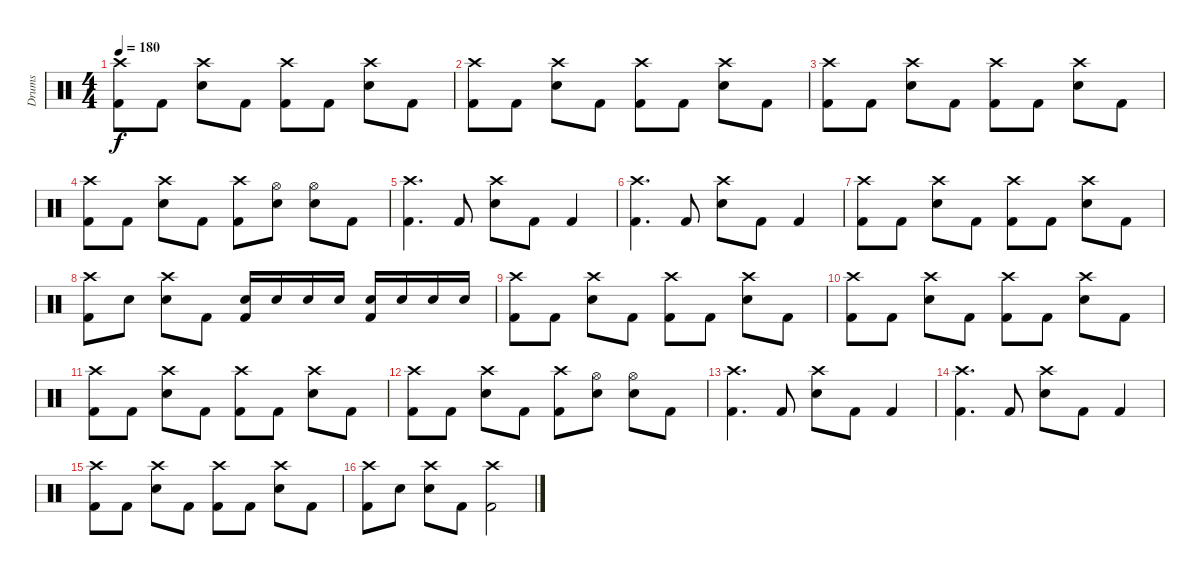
\track ("Drums" "Drums") {instrument percussion}
\staff {score}
\articulation defaults
\ts (4 4)
\tempo 180
\clef neutral
\ks c
("Crash high (hit)" "Kick (hit) 2").8{dy f} "Kick (hit) 2".8 ("Crash high (hit)" "Electric Snare (hit)").8 "Kick (hit) 2".8 ("Crash high (hit)" "Kick (hit) 2").8 "Kick (hit) 2".8 ("Crash high (hit)" "Electric Snare (hit)").8 "Kick (hit) 2".8 |
("Crash high (hit)" "Kick (hit) 2").8 "Kick (hit) 2".8 ("Crash high (hit)" "Electric Snare (hit)").8 "Kick (hit) 2".8 ("Crash high (hit)" "Kick (hit) 2").8 "Kick (hit) 2".8 ("Crash high (hit)" "Electric Snare (hit)").8 "Kick (hit) 2".8 |
("Crash high (hit)" "Kick (hit) 2").8 "Kick (hit) 2".8 ("Crash high (hit)" "Electric Snare (hit)").8 "Kick (hit) 2".8 ("Crash high (hit)" "Kick (hit) 2").8 "Kick (hit) 2".8 ("Crash high (hit)" "Electric Snare (hit)").8 "Kick (hit) 2".8 |
("Crash high (hit)" "Kick (hit) 2").8 "Kick (hit) 2".8 ("Crash high (hit)" "Electric Snare (hit)").8 "Kick (hit) 2".8 ("Crash high (hit)" "Kick (hit) 2").8 ("Hi-Hat (open)" "Electric Snare (hit)").8 ("Hi-Hat (open)" "Electric Snare (hit)").8 "Kick (hit) 2".8 |
("Crash high (hit)" "Kick (hit) 2").4{d} "Kick (hit) 2".8 ("Crash high (hit)" "Electric Snare (hit)").8 "Kick (hit) 2".8 "Kick (hit) 2".4 |
("Crash high (hit)" "Kick (hit) 2").4{d} "Kick (hit) 2".8 ("Crash high (hit)" "Electric Snare (hit)").8 "Kick (hit) 2".8 "Kick (hit) 2".4 |
("Crash high (hit)" "Kick (hit) 2").8 "Kick (hit) 2".8 ("Crash high (hit)" "Electric Snare (hit)").8 "Kick (hit) 2".8 ("Crash high (hit)" "Kick (hit) 2").8 "Kick (hit) 2".8 ("Crash high (hit)" "Electric Snare (hit)").8 "Kick (hit) 2".8 |
("Crash high (hit)" "Kick (hit) 2").8 "Electric Snare (hit)".8 ("Crash high (hit)" "Electric Snare (hit)").8 "Kick (hit) 2".8 ("Electric Snare (hit)" "Kick (hit) 2").16 "Electric Snare (hit)".16 "Electric Snare (hit)".16 "Electric Snare (hit)".16 ("Electric Snare (hit)" "Kick (hit) 2").16 "Electric Snare (hit)".16 "Electric Snare (hit)".16 "Electric Snare (hit)".16 |
("Crash high (hit)" "Kick (hit) 2").8 "Kick (hit) 2".8 ("Crash high (hit)" "Electric Snare (hit)").8 "Kick (hit) 2".8 ("Crash high (hit)" "Kick (hit) 2").8 "Kick (hit) 2".8 ("Crash high (hit)" "Electric Snare (hit)").8 "Kick (hit) 2".8 |
("Crash high (hit)" "Kick (hit) 2").8 "Kick (hit) 2".8 ("Crash high (hit)" "Electric Snare (hit)").8 "Kick (hit) 2".8 ("Crash high (hit)" "Kick (hit) 2").8 "Kick (hit) 2".8 ("Crash high (hit)" "Electric Snare (hit)").8 "Kick (hit) 2".8 |
("Crash high (hit)" "Kick (hit) 2").8 "Kick (hit) 2".8 ("Crash high (hit)" "Electric Snare (hit)").8 "Kick (hit) 2".8 ("Crash high (hit)" "Kick (hit) 2").8 "Kick (hit) 2".8 ("Crash high (hit)" "Electric Snare (hit)").8 "Kick (hit) 2".8 |
("Crash high (hit)" "Kick (hit) 2").8 "Kick (hit) 2".8 ("Crash high (hit)" "Electric Snare (hit)").8 "Kick (hit) 2".8 ("Crash high (hit)" "Kick (hit) 2").8 ("Hi-Hat (open)" "Electric Snare (hit)").8 ("Hi-Hat (open)" "Electric Snare (hit)").8 "Kick (hit) 2".8 |
("Crash high (hit)" "Kick (hit) 2").4{d} "Kick (hit) 2".8 ("Crash high (hit)" "Electric Snare (hit)").8 "Kick (hit) 2".8 "Kick (hit) 2".4 |
("Crash high (hit)" "Kick (hit) 2").4{d} "Kick (hit) 2".8 ("Crash high (hit)" "Electric Snare (hit)").8 "Kick (hit) 2".8 "Kick (hit) 2".4 |
("Crash high (hit)" "Kick (hit) 2").8 "Kick (hit) 2".8 ("Crash high (hit)" "Electric Snare (hit)").8 "Kick (hit) 2".8 ("Crash high (hit)" "Kick (hit) 2").8 "Kick (hit) 2".8 ("Crash high (hit)" "Electric Snare (hit)").8 "Kick (hit) 2".8 |
("Crash high (hit)" "Kick (hit) 2").8 "Electric Snare (hit)".8 ("Crash high (hit)" "Electric Snare (hit)").8 "Kick (hit) 2".8 ("Crash high (hit)" "Kick (hit) 2").2
